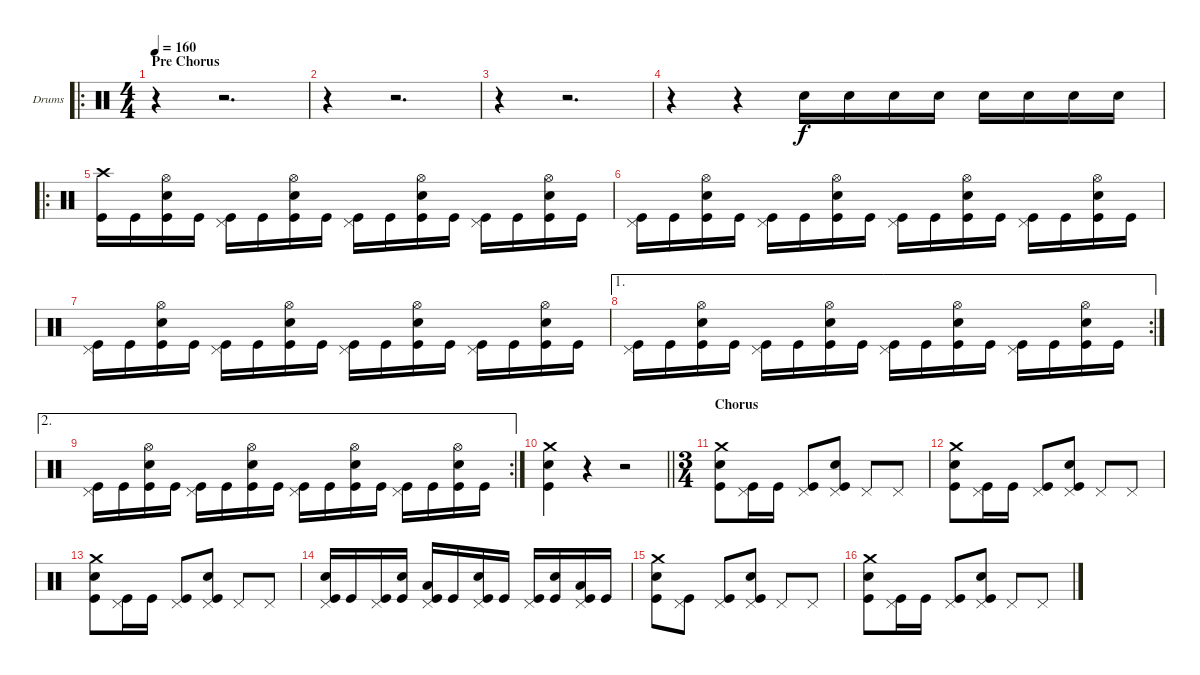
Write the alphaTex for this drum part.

\bracketExtendMode groupsimilarinstruments
\firstSystemTrackNameOrientation horizontal
\otherSystemsTrackNameOrientation horizontal
\track ("Drumkit" "Drums") {instrument percussion}
\staff {score}
\articulation defaults
\ro
\ts (4 4)
\beaming (8 2 2 2 2)
\section ("" "Pre Chorus")
\tempo 160
\clef neutral
\ks c
r.4{dy f} r.2{d} |
r.4 r.2{d} |
r.4 r.2{d} |
r.4 r.4 "Snare (hit) 2".16 "Snare (hit) 2".16 "Snare (hit) 2".16 "Snare (hit) 2".16 "Snare (hit) 2".16 "Snare (hit) 2".16 "Snare (hit) 2".16 "Snare (hit) 2".16 |
\ro
("Crash high (hit)" "Kick (hit)").16 "Kick (hit)".16 ("Hi-Hat (open)" "Snare (hit) 2" "Kick (hit)").16 "Kick (hit)".16 ("Pedal Hi-Hat (hit)" "Kick (hit)").16 "Kick (hit)".16 ("Hi-Hat (open)" "Snare (hit) 2" "Kick (hit)").16 "Kick (hit)".16 ("Pedal Hi-Hat (hit)" "Kick (hit)").16 "Kick (hit)".16 ("Hi-Hat (open)" "Snare (hit) 2" "Kick (hit)").16 "Kick (hit)".16 ("Pedal Hi-Hat (hit)" "Kick (hit)").16 "Kick (hit)".16 ("Hi-Hat (open)" "Snare (hit) 2" "Kick (hit)").16 "Kick (hit)".16 |
("Pedal Hi-Hat (hit)" "Kick (hit)").16 "Kick (hit)".16 ("Hi-Hat (open)" "Snare (hit) 2" "Kick (hit)").16 "Kick (hit)".16 ("Pedal Hi-Hat (hit)" "Kick (hit)").16 "Kick (hit)".16 ("Hi-Hat (open)" "Snare (hit) 2" "Kick (hit)").16 "Kick (hit)".16 ("Pedal Hi-Hat (hit)" "Kick (hit)").16 "Kick (hit)".16 ("Hi-Hat (open)" "Snare (hit) 2" "Kick (hit)").16 "Kick (hit)".16 ("Pedal Hi-Hat (hit)" "Kick (hit)").16 "Kick (hit)".16 ("Hi-Hat (open)" "Snare (hit) 2" "Kick (hit)").16 "Kick (hit)".16 |
("Pedal Hi-Hat (hit)" "Kick (hit)").16 "Kick (hit)".16 ("Hi-Hat (open)" "Snare (hit) 2" "Kick (hit)").16 "Kick (hit)".16 ("Pedal Hi-Hat (hit)" "Kick (hit)").16 "Kick (hit)".16 ("Hi-Hat (open)" "Snare (hit) 2" "Kick (hit)").16 "Kick (hit)".16 ("Pedal Hi-Hat (hit)" "Kick (hit)").16 "Kick (hit)".16 ("Hi-Hat (open)" "Snare (hit) 2" "Kick (hit)").16 "Kick (hit)".16 ("Pedal Hi-Hat (hit)" "Kick (hit)").16 "Kick (hit)".16 ("Hi-Hat (open)" "Snare (hit) 2" "Kick (hit)").16 "Kick (hit)".16 |
\ae 1
\rc 2
("Pedal Hi-Hat (hit)" "Kick (hit)").16 "Kick (hit)".16 ("Hi-Hat (open)" "Snare (hit) 2" "Kick (hit)").16 "Kick (hit)".16 ("Pedal Hi-Hat (hit)" "Kick (hit)").16 "Kick (hit)".16 ("Hi-Hat (open)" "Snare (hit) 2" "Kick (hit)").16 "Kick (hit)".16 ("Pedal Hi-Hat (hit)" "Kick (hit)").16 "Kick (hit)".16 ("Hi-Hat (open)" "Snare (hit) 2" "Kick (hit)").16 "Kick (hit)".16 ("Pedal Hi-Hat (hit)" "Kick (hit)").16 "Kick (hit)".16 ("Hi-Hat (open)" "Snare (hit) 2" "Kick (hit)").16 "Kick (hit)".16 |
\ae 2
\rc 2
("Pedal Hi-Hat (hit)" "Kick (hit)").16 "Kick (hit)".16 ("Hi-Hat (open)" "Snare (hit) 2" "Kick (hit)").16 "Kick (hit)".16 ("Pedal Hi-Hat (hit)" "Kick (hit)").16 "Kick (hit)".16 ("Hi-Hat (open)" "Snare (hit) 2" "Kick (hit)").16 "Kick (hit)".16 ("Pedal Hi-Hat (hit)" "Kick (hit)").16 "Kick (hit)".16 ("Hi-Hat (open)" "Snare (hit) 2" "Kick (hit)").16 "Kick (hit)".16 ("Pedal Hi-Hat (hit)" "Kick (hit)").16 "Kick (hit)".16 ("Hi-Hat (open)" "Snare (hit) 2" "Kick (hit)").16 "Kick (hit)".16 |
\barLineRight lightlight
("Crash medium (hit)" "Snare (hit) 2" "Kick (hit)").4 r.4 r.2 |
\ts (3 4)
\beaming (8 2 2 2 2)
\section ("" "Chorus")
("Crash medium (hit)" "Snare (hit) 2" "Kick (hit)").8 ("Pedal Hi-Hat (hit)" "Kick (hit)").16 "Kick (hit)".16 ("Pedal Hi-Hat (hit)" "Kick (hit)").8 ("Pedal Hi-Hat (hit)" "Kick (hit)" "Snare (hit) 2").8 "Pedal Hi-Hat (hit)".8 "Pedal Hi-Hat (hit)".8 |
("Crash medium (hit)" "Snare (hit) 2" "Kick (hit)").8 ("Pedal Hi-Hat (hit)" "Kick (hit)").16 "Kick (hit)".16 ("Pedal Hi-Hat (hit)" "Kick (hit)").8 ("Pedal Hi-Hat (hit)" "Kick (hit)" "Snare (hit) 2").8 "Pedal Hi-Hat (hit)".8 "Pedal Hi-Hat (hit)".8 |
("Crash medium (hit)" "Snare (hit) 2" "Kick (hit)").8 ("Pedal Hi-Hat (hit)" "Kick (hit)").16 "Kick (hit)".16 ("Pedal Hi-Hat (hit)" "Kick (hit)").8 ("Pedal Hi-Hat (hit)" "Kick (hit)" "Snare (hit) 2").8 "Pedal Hi-Hat (hit)".8 "Pedal Hi-Hat (hit)".8 |
("Pedal Hi-Hat (hit)" "Snare (hit) 2" "Kick (hit)").16 "Kick (hit)".16 ("Pedal Hi-Hat (hit)" "Kick (hit)").16 ("Snare (hit) 2" "Kick (hit)").16 ("Pedal Hi-Hat (hit)" "Low Tom (hit)" "Kick (hit)").16 "Kick (hit)".16 ("Pedal Hi-Hat (hit)" "Snare (hit) 2" "Kick (hit)").16 "Kick (hit)".16 ("Pedal Hi-Hat (hit)" "Kick (hit)").16 ("Snare (hit) 2" "Kick (hit)").16 ("Pedal Hi-Hat (hit)" "Low Tom (hit)" "Kick (hit)").16 "Kick (hit)".16 |
("Crash medium (hit)" "Snare (hit) 2" "Kick (hit)").8 ("Pedal Hi-Hat (hit)" "Kick (hit)").8 ("Pedal Hi-Hat (hit)" "Kick (hit)").8 ("Pedal Hi-Hat (hit)" "Kick (hit)" "Snare (hit) 2").8 "Pedal Hi-Hat (hit)".8 "Pedal Hi-Hat (hit)".8 |
("Crash medium (hit)" "Snare (hit) 2" "Kick (hit)").8 ("Pedal Hi-Hat (hit)" "Kick (hit)").16 "Kick (hit)".16 ("Pedal Hi-Hat (hit)" "Kick (hit)").8 ("Pedal Hi-Hat (hit)" "Kick (hit)" "Snare (hit) 2").8 "Pedal Hi-Hat (hit)".8 "Pedal Hi-Hat (hit)".8
